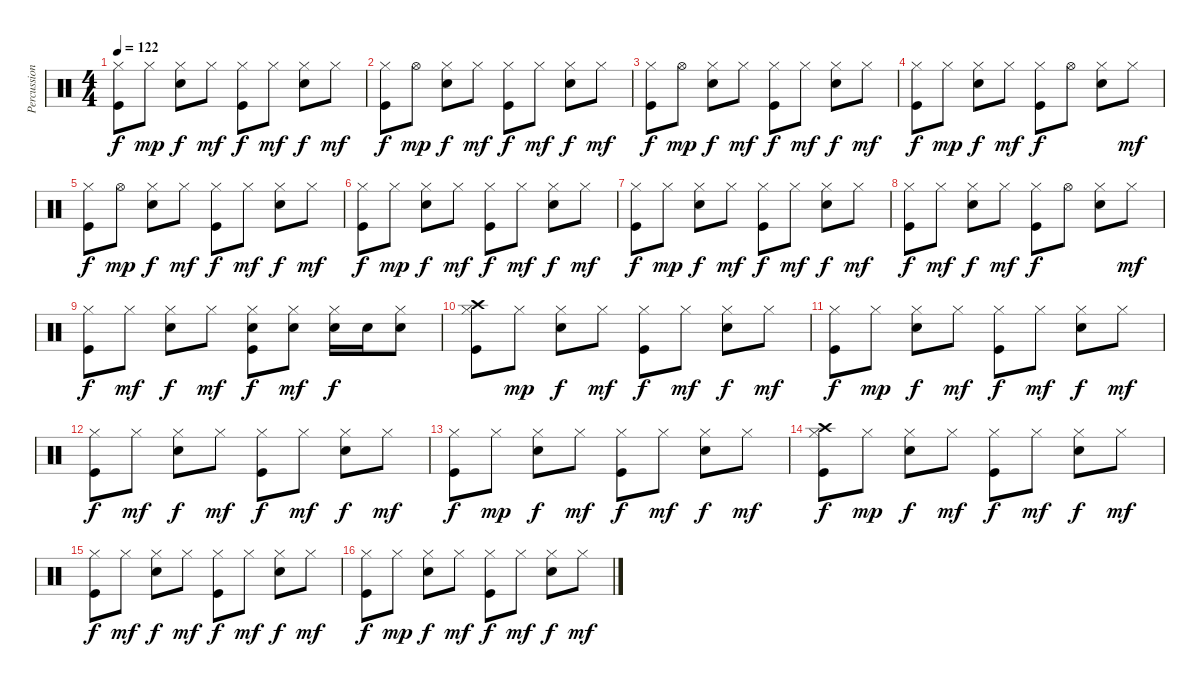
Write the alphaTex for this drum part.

\track ("Percussion" "Percussion") {instrument percussion}
\staff {score}
\articulation defaults
\ts (4 4)
\tempo 122
\clef neutral
\ks c
("Hi-Hat (closed)" "Kick (hit)").8{dy f} "Hi-Hat (closed)".8{dy mp} ("Hi-Hat (closed)" "Snare (hit) 2").8{dy f} "Hi-Hat (closed)".8{dy mf} ("Hi-Hat (closed)" "Kick (hit)").8{dy f} "Hi-Hat (closed)".8{dy mf} ("Hi-Hat (closed)" "Snare (hit) 2").8{dy f} "Hi-Hat (closed)".8{dy mf} |
("Hi-Hat (closed)" "Kick (hit)").8{dy f} "Hi-Hat (open)".8{dy mp} ("Hi-Hat (closed)" "Snare (hit) 2").8{dy f} "Hi-Hat (closed)".8{dy mf} ("Hi-Hat (closed)" "Kick (hit)").8{dy f} "Hi-Hat (closed)".8{dy mf} ("Hi-Hat (closed)" "Snare (hit) 2").8{dy f} "Hi-Hat (closed)".8{dy mf} |
("Hi-Hat (closed)" "Kick (hit)").8{dy f} "Hi-Hat (open)".8{dy mp} ("Hi-Hat (closed)" "Snare (hit) 2").8{dy f} "Hi-Hat (closed)".8{dy mf} ("Hi-Hat (closed)" "Kick (hit)").8{dy f} "Hi-Hat (closed)".8{dy mf} ("Hi-Hat (closed)" "Snare (hit) 2").8{dy f} "Hi-Hat (closed)".8{dy mf} |
("Hi-Hat (closed)" "Kick (hit)").8{dy f} "Hi-Hat (closed)".8{dy mp} ("Hi-Hat (closed)" "Snare (hit) 2").8{dy f} "Hi-Hat (closed)".8{dy mf} ("Hi-Hat (closed)" "Kick (hit)").8{dy f} "Hi-Hat (open)".8 ("Hi-Hat (closed)" "Snare (hit) 2").8 "Hi-Hat (closed)".8{dy mf} |
("Hi-Hat (closed)" "Kick (hit)").8{dy f} "Hi-Hat (open)".8{dy mp} ("Hi-Hat (closed)" "Snare (hit) 2").8{dy f} "Hi-Hat (closed)".8{dy mf} ("Hi-Hat (closed)" "Kick (hit)").8{dy f} "Hi-Hat (closed)".8{dy mf} ("Hi-Hat (closed)" "Snare (hit) 2").8{dy f} "Hi-Hat (closed)".8{dy mf} |
("Hi-Hat (closed)" "Kick (hit)").8{dy f} "Hi-Hat (closed)".8{dy mp} ("Hi-Hat (closed)" "Snare (hit) 2").8{dy f} "Hi-Hat (closed)".8{dy mf} ("Hi-Hat (closed)" "Kick (hit)").8{dy f} "Hi-Hat (closed)".8{dy mf} ("Hi-Hat (closed)" "Snare (hit) 2").8{dy f} "Hi-Hat (closed)".8{dy mf} |
("Hi-Hat (closed)" "Kick (hit)").8{dy f} "Hi-Hat (closed)".8{dy mp} ("Hi-Hat (closed)" "Snare (hit) 2").8{dy f} "Hi-Hat (closed)".8{dy mf} ("Hi-Hat (closed)" "Kick (hit)").8{dy f} "Hi-Hat (closed)".8{dy mf} ("Hi-Hat (closed)" "Snare (hit) 2").8{dy f} "Hi-Hat (closed)".8{dy mf} |
("Hi-Hat (closed)" "Kick (hit)").8{dy f} "Hi-Hat (closed)".8{dy mf} ("Hi-Hat (closed)" "Snare (hit) 2").8{dy f} "Hi-Hat (closed)".8{dy mf} ("Hi-Hat (closed)" "Kick (hit)").8{dy f} "Hi-Hat (open)".8 ("Hi-Hat (closed)" "Snare (hit) 2").8 "Hi-Hat (closed)".8{dy mf} |
("Hi-Hat (closed)" "Kick (hit)").8{dy f} "Hi-Hat (closed)".8{dy mf} ("Hi-Hat (closed)" "Snare (hit) 2").8{dy f} "Hi-Hat (closed)".8{dy mf} ("Hi-Hat (closed)" "Snare (hit) 2" "Kick (hit)").8{dy f} ("Hi-Hat (closed)" "Snare (hit) 2").8{dy mf} ("Hi-Hat (closed)" "Snare (hit) 2").16{dy f} "Snare (hit) 2".16 ("Hi-Hat (closed)" "Snare (hit) 2").8 |
("Crash high (hit)" "Hi-Hat (closed)" "Kick (hit)").8 "Hi-Hat (closed)".8{dy mp} ("Hi-Hat (closed)" "Snare (hit) 2").8{dy f} "Hi-Hat (closed)".8{dy mf} ("Hi-Hat (closed)" "Kick (hit)").8{dy f} "Hi-Hat (closed)".8{dy mf} ("Hi-Hat (closed)" "Snare (hit) 2").8{dy f} "Hi-Hat (closed)".8{dy mf} |
("Hi-Hat (closed)" "Kick (hit)").8{dy f} "Hi-Hat (closed)".8{dy mp} ("Hi-Hat (closed)" "Snare (hit) 2").8{dy f} "Hi-Hat (closed)".8{dy mf} ("Hi-Hat (closed)" "Kick (hit)").8{dy f} "Hi-Hat (closed)".8{dy mf} ("Hi-Hat (closed)" "Snare (hit) 2").8{dy f} "Hi-Hat (closed)".8{dy mf} |
("Hi-Hat (closed)" "Kick (hit)").8{dy f} "Hi-Hat (closed)".8{dy mf} ("Hi-Hat (closed)" "Snare (hit) 2").8{dy f} "Hi-Hat (closed)".8{dy mf} ("Hi-Hat (closed)" "Kick (hit)").8{dy f} "Hi-Hat (closed)".8{dy mf} ("Hi-Hat (closed)" "Snare (hit) 2").8{dy f} "Hi-Hat (closed)".8{dy mf} |
("Hi-Hat (closed)" "Kick (hit)").8{dy f} "Hi-Hat (closed)".8{dy mp} ("Hi-Hat (closed)" "Snare (hit) 2").8{dy f} "Hi-Hat (closed)".8{dy mf} ("Hi-Hat (closed)" "Kick (hit)").8{dy f} "Hi-Hat (closed)".8{dy mf} ("Hi-Hat (closed)" "Snare (hit) 2").8{dy f} "Hi-Hat (closed)".8{dy mf} |
("Crash high (hit)" "Hi-Hat (closed)" "Kick (hit)").8{dy f} "Hi-Hat (closed)".8{dy mp} ("Hi-Hat (closed)" "Snare (hit) 2").8{dy f} "Hi-Hat (closed)".8{dy mf} ("Hi-Hat (closed)" "Kick (hit)").8{dy f} "Hi-Hat (closed)".8{dy mf} ("Hi-Hat (closed)" "Snare (hit) 2").8{dy f} "Hi-Hat (closed)".8{dy mf} |
("Hi-Hat (closed)" "Kick (hit)").8{dy f} "Hi-Hat (closed)".8{dy mf} ("Hi-Hat (closed)" "Snare (hit) 2").8{dy f} "Hi-Hat (closed)".8{dy mf} ("Hi-Hat (closed)" "Kick (hit)").8{dy f} "Hi-Hat (closed)".8{dy mf} ("Hi-Hat (closed)" "Snare (hit) 2").8{dy f} "Hi-Hat (closed)".8{dy mf} |
("Hi-Hat (closed)" "Kick (hit)").8{dy f} "Hi-Hat (closed)".8{dy mp} ("Hi-Hat (closed)" "Snare (hit) 2").8{dy f} "Hi-Hat (closed)".8{dy mf} ("Hi-Hat (closed)" "Kick (hit)").8{dy f} "Hi-Hat (closed)".8{dy mf} ("Hi-Hat (closed)" "Snare (hit) 2").8{dy f} "Hi-Hat (closed)".8{dy mf}
